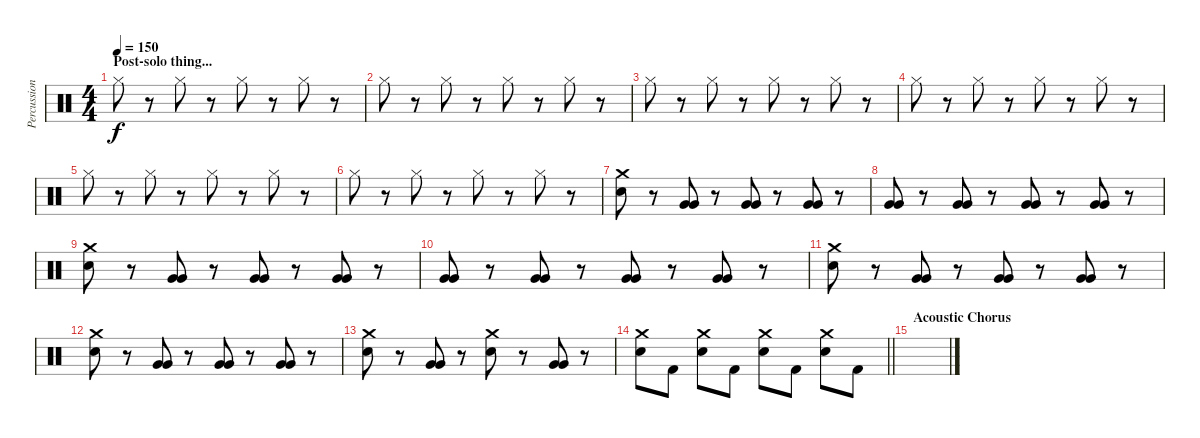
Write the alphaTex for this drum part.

\track ("Percussion" "Percussion") {instrument percussion}
\staff {score}
\articulation defaults
\ts (4 4)
\section ("" "Post-solo thing...")
\tempo 150
\clef neutral
\ks c "Hi-Hat (closed)".8{dy f}
r.8 "Hi-Hat (closed)".8 r.8 "Hi-Hat (closed)".8 r.8 "Hi-Hat (closed)".8 r.8 |
"Hi-Hat (closed)".8 r.8 "Hi-Hat (closed)".8 r.8 "Hi-Hat (closed)".8 r.8 "Hi-Hat (closed)".8 r.8 |
"Hi-Hat (closed)".8 r.8 "Hi-Hat (closed)".8 r.8 "Hi-Hat (closed)".8 r.8 "Hi-Hat (closed)".8 r.8 |
"Hi-Hat (closed)".8 r.8 "Hi-Hat (closed)".8 r.8 "Hi-Hat (closed)".8 r.8 "Hi-Hat (closed)".8 r.8 |
"Hi-Hat (closed)".8 r.8 "Hi-Hat (closed)".8 r.8 "Hi-Hat (closed)".8 r.8 "Hi-Hat (closed)".8 r.8 |
"Hi-Hat (closed)".8 r.8 "Hi-Hat (closed)".8 r.8 "Hi-Hat (closed)".8 r.8 "Hi-Hat (closed)".8 r.8 |
("Crash medium (hit)" "Electric Snare (hit)").8 r.8 ("Very Low Tom (hit)" "Very Low Tom (hit)").8 r.8 ("Very Low Tom (hit)" "Very Low Tom (hit)").8 r.8 ("Very Low Tom (hit)" "Very Low Tom (hit)").8 r.8 |
("Very Low Tom (hit)" "Very Low Tom (hit)").8 r.8 ("Very Low Tom (hit)" "Very Low Tom (hit)").8 r.8 ("Very Low Tom (hit)" "Very Low Tom (hit)").8 r.8 ("Very Low Tom (hit)" "Very Low Tom (hit)").8 r.8 |
("Crash medium (hit)" "Electric Snare (hit)").8 r.8 ("Very Low Tom (hit)" "Very Low Tom (hit)").8 r.8 ("Very Low Tom (hit)" "Very Low Tom (hit)").8 r.8 ("Very Low Tom (hit)" "Very Low Tom (hit)").8 r.8 |
("Very Low Tom (hit)" "Very Low Tom (hit)").8 r.8 ("Very Low Tom (hit)" "Very Low Tom (hit)").8 r.8 ("Very Low Tom (hit)" "Very Low Tom (hit)").8 r.8 ("Very Low Tom (hit)" "Very Low Tom (hit)").8 r.8 |
("Crash medium (hit)" "Electric Snare (hit)").8 r.8 ("Very Low Tom (hit)" "Very Low Tom (hit)").8 r.8 ("Very Low Tom (hit)" "Very Low Tom (hit)").8 r.8 ("Very Low Tom (hit)" "Very Low Tom (hit)").8 r.8 |
("Crash medium (hit)" "Electric Snare (hit)").8 r.8 ("Very Low Tom (hit)" "Very Low Tom (hit)").8 r.8 ("Very Low Tom (hit)" "Very Low Tom (hit)").8 r.8 ("Very Low Tom (hit)" "Very Low Tom (hit)").8 r.8 |
("Crash medium (hit)" "Electric Snare (hit)").8 r.8 ("Very Low Tom (hit)" "Very Low Tom (hit)").8 r.8 ("Crash medium (hit)" "Electric Snare (hit)").8 r.8 ("Very Low Tom (hit)" "Very Low Tom (hit)").8 r.8 |
\barLineRight lightlight
("Crash medium (hit)" "Electric Snare (hit)").8 "Kick (hit) 2".8 ("Crash medium (hit)" "Electric Snare (hit)").8 "Kick (hit) 2".8 ("Crash medium (hit)" "Electric Snare (hit)").8 "Kick (hit) 2".8 ("Crash medium (hit)" "Electric Snare (hit)").8 "Kick (hit) 2".8 |
\section ("" "Acoustic Chorus")
